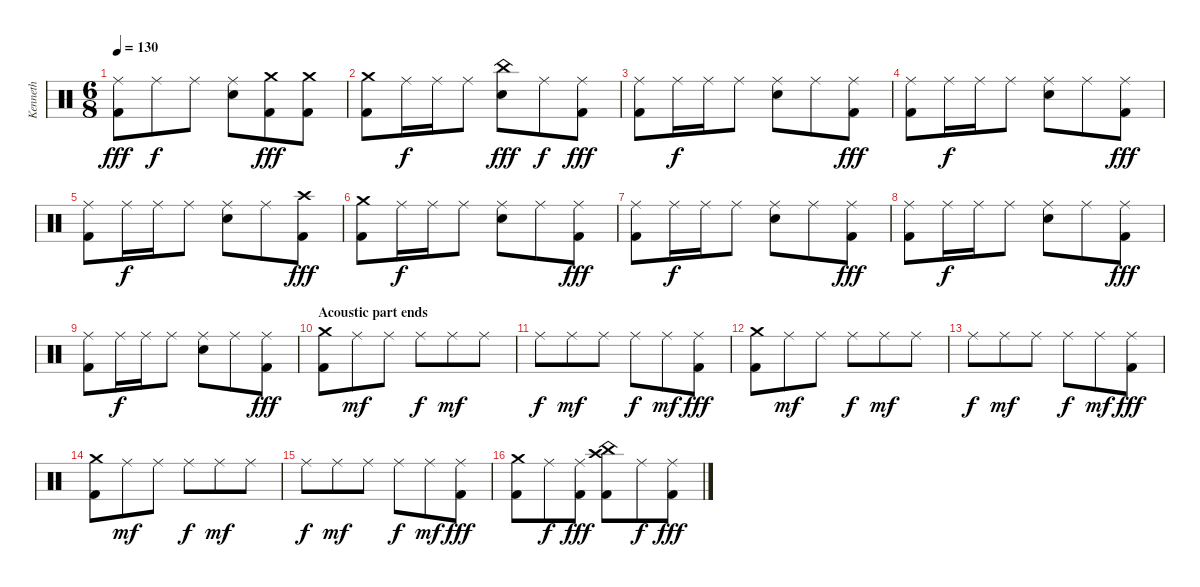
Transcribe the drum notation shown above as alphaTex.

\track ("Kenneth" "Kenneth") {instrument percussion}
\staff {score}
\articulation defaults
\ts (6 8)
\tempo 130
\clef neutral
\ks c
("Ride (middle)" "Kick (hit) 2").8{dy fff} "Ride (middle)".8{dy f} "Ride (middle)".8 ("Ride (middle)" "Electric Snare (hit)").8 ("Crash medium (hit)" "Kick (hit) 2").8{dy fff} ("Crash medium (hit)" "Kick (hit) 2").8 |
("Crash medium (hit)" "Kick (hit) 2").8 "Ride (middle)".16{dy f} "Ride (middle)".16 "Ride (middle)".8 ("China (hit)" "Electric Snare (hit)").8{dy fff} "Ride (middle)".8{dy f} ("Ride (middle)" "Kick (hit) 2").8{dy fff} |
("Ride (middle)" "Kick (hit) 2").8 "Ride (middle)".16{dy f} "Ride (middle)".16 "Ride (middle)".8 ("Ride (middle)" "Electric Snare (hit)").8 "Ride (middle)".8 ("Ride (middle)" "Kick (hit) 2").8{dy fff} |
("Ride (middle)" "Kick (hit) 2").8 "Ride (middle)".16{dy f} "Ride (middle)".16 "Ride (middle)".8 ("Ride (middle)" "Electric Snare (hit)").8 "Ride (middle)".8 ("Ride (middle)" "Kick (hit) 2").8{dy fff} |
("Ride (middle)" "Kick (hit) 2").8 "Ride (middle)".16{dy f} "Ride (middle)".16 "Ride (middle)".8 ("Ride (middle)" "Electric Snare (hit)").8 "Ride (middle)".8 ("Crash high (hit)" "Kick (hit) 2").8{dy fff} |
("Crash medium (hit)" "Kick (hit) 2").8 "Ride (middle)".16{dy f} "Ride (middle)".16 "Ride (middle)".8 ("Ride (middle)" "Electric Snare (hit)").8 "Ride (middle)".8 ("Ride (middle)" "Kick (hit) 2").8{dy fff} |
("Ride (middle)" "Kick (hit) 2").8 "Ride (middle)".16{dy f} "Ride (middle)".16 "Ride (middle)".8 ("Ride (middle)" "Electric Snare (hit)").8 "Ride (middle)".8 ("Ride (middle)" "Kick (hit) 2").8{dy fff} |
("Ride (middle)" "Kick (hit) 2").8 "Ride (middle)".16{dy f} "Ride (middle)".16 "Ride (middle)".8 ("Ride (middle)" "Electric Snare (hit)").8 "Ride (middle)".8 ("Ride (middle)" "Kick (hit) 2").8{dy fff} |
("Ride (middle)" "Kick (hit) 2").8 "Ride (middle)".16{dy f} "Ride (middle)".16 "Ride (middle)".8 ("Ride (middle)" "Electric Snare (hit)").8 "Ride (middle)".8 ("Ride (middle)" "Kick (hit) 2").8{dy fff} |
\section ("" "Acoustic part ends")
("Crash medium (hit)" "Kick (hit) 2").8 "Ride (middle)".8{dy mf} "Ride (middle)".8 "Ride (middle)".8{dy f} "Ride (middle)".8{dy mf} "Ride (middle)".8 |
"Ride (middle)".8{dy f} "Ride (middle)".8{dy mf} "Ride (middle)".8 "Ride (middle)".8{dy f} "Ride (middle)".8{dy mf} ("Ride (middle)" "Kick (hit) 2").8{dy fff} |
("Crash medium (hit)" "Kick (hit) 2").8 "Ride (middle)".8{dy mf} "Ride (middle)".8 "Ride (middle)".8{dy f} "Ride (middle)".8{dy mf} "Ride (middle)".8 |
"Ride (middle)".8{dy f} "Ride (middle)".8{dy mf} "Ride (middle)".8 "Ride (middle)".8{dy f} "Ride (middle)".8{dy mf} ("Ride (middle)" "Kick (hit) 2").8{dy fff} |
("Crash medium (hit)" "Kick (hit) 2").8 "Ride (middle)".8{dy mf} "Ride (middle)".8 "Ride (middle)".8{dy f} "Ride (middle)".8{dy mf} "Ride (middle)".8 |
"Ride (middle)".8{dy f} "Ride (middle)".8{dy mf} "Ride (middle)".8 "Ride (middle)".8{dy f} "Ride (middle)".8{dy mf} ("Ride (middle)" "Kick (hit) 2").8{dy fff} |
("Crash medium (hit)" "Kick (hit) 2").8 "Ride (middle)".8{dy f} ("Ride (middle)" "Kick (hit) 2").8{dy fff} ("China (hit)" "Crash high (hit)" "Kick (hit) 2").8 "Ride (middle)".8{dy f} ("Ride (middle)" "Kick (hit) 2").8{dy fff}
